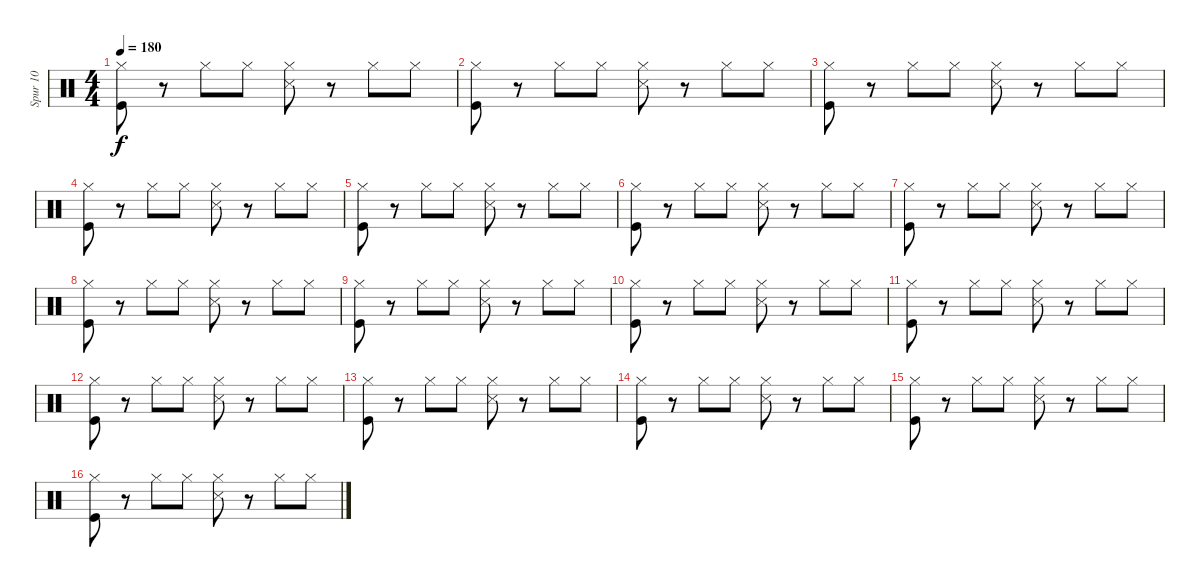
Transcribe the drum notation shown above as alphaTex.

\track ("Spur 10" "Spur 10") {instrument percussion}
\staff {score}
\articulation defaults
\ts (4 4)
\tempo 180
\clef neutral
\ks c
("Hi-Hat (closed)" "Kick (hit)").8{dy f} r.8 "Hi-Hat (closed)".8 "Hi-Hat (closed)".8 ("Hi-Hat (closed)" "Snare (side stick) 3").8 r.8 "Hi-Hat (closed)".8 "Hi-Hat (closed)".8 |
("Hi-Hat (closed)" "Kick (hit)").8 r.8 "Hi-Hat (closed)".8 "Hi-Hat (closed)".8 ("Hi-Hat (closed)" "Snare (side stick) 3").8 r.8 "Hi-Hat (closed)".8 "Hi-Hat (closed)".8 |
("Hi-Hat (closed)" "Kick (hit)").8 r.8 "Hi-Hat (closed)".8 "Hi-Hat (closed)".8 ("Hi-Hat (closed)" "Snare (side stick) 3").8 r.8 "Hi-Hat (closed)".8 "Hi-Hat (closed)".8 |
("Hi-Hat (closed)" "Kick (hit)").8 r.8 "Hi-Hat (closed)".8 "Hi-Hat (closed)".8 ("Hi-Hat (closed)" "Snare (side stick) 3").8 r.8 "Hi-Hat (closed)".8 "Hi-Hat (closed)".8 |
("Hi-Hat (closed)" "Kick (hit)").8 r.8 "Hi-Hat (closed)".8 "Hi-Hat (closed)".8 ("Hi-Hat (closed)" "Snare (side stick) 3").8 r.8 "Hi-Hat (closed)".8 "Hi-Hat (closed)".8 |
("Hi-Hat (closed)" "Kick (hit)").8 r.8 "Hi-Hat (closed)".8 "Hi-Hat (closed)".8 ("Hi-Hat (closed)" "Snare (side stick) 3").8 r.8 "Hi-Hat (closed)".8 "Hi-Hat (closed)".8 |
("Hi-Hat (closed)" "Kick (hit)").8 r.8 "Hi-Hat (closed)".8 "Hi-Hat (closed)".8 ("Hi-Hat (closed)" "Snare (side stick) 3").8 r.8 "Hi-Hat (closed)".8 "Hi-Hat (closed)".8 |
("Hi-Hat (closed)" "Kick (hit)").8 r.8 "Hi-Hat (closed)".8 "Hi-Hat (closed)".8 ("Hi-Hat (closed)" "Snare (side stick) 3").8 r.8 "Hi-Hat (closed)".8 "Hi-Hat (closed)".8 |
("Hi-Hat (closed)" "Kick (hit)").8 r.8 "Hi-Hat (closed)".8 "Hi-Hat (closed)".8 ("Hi-Hat (closed)" "Snare (side stick) 3").8 r.8 "Hi-Hat (closed)".8 "Hi-Hat (closed)".8 |
("Hi-Hat (closed)" "Kick (hit)").8 r.8 "Hi-Hat (closed)".8 "Hi-Hat (closed)".8 ("Hi-Hat (closed)" "Snare (side stick) 3").8 r.8 "Hi-Hat (closed)".8 "Hi-Hat (closed)".8 |
("Hi-Hat (closed)" "Kick (hit)").8 r.8 "Hi-Hat (closed)".8 "Hi-Hat (closed)".8 ("Hi-Hat (closed)" "Snare (side stick) 3").8 r.8 "Hi-Hat (closed)".8 "Hi-Hat (closed)".8 |
("Hi-Hat (closed)" "Kick (hit)").8 r.8 "Hi-Hat (closed)".8 "Hi-Hat (closed)".8 ("Hi-Hat (closed)" "Snare (side stick) 3").8 r.8 "Hi-Hat (closed)".8 "Hi-Hat (closed)".8 |
("Hi-Hat (closed)" "Kick (hit)").8 r.8 "Hi-Hat (closed)".8 "Hi-Hat (closed)".8 ("Hi-Hat (closed)" "Snare (side stick) 3").8 r.8 "Hi-Hat (closed)".8 "Hi-Hat (closed)".8 |
("Hi-Hat (closed)" "Kick (hit)").8 r.8 "Hi-Hat (closed)".8 "Hi-Hat (closed)".8 ("Hi-Hat (closed)" "Snare (side stick) 3").8 r.8 "Hi-Hat (closed)".8 "Hi-Hat (closed)".8 |
("Hi-Hat (closed)" "Kick (hit)").8 r.8 "Hi-Hat (closed)".8 "Hi-Hat (closed)".8 ("Hi-Hat (closed)" "Snare (side stick) 3").8 r.8 "Hi-Hat (closed)".8 "Hi-Hat (closed)".8 |
("Hi-Hat (closed)" "Kick (hit)").8 r.8 "Hi-Hat (closed)".8 "Hi-Hat (closed)".8 ("Hi-Hat (closed)" "Snare (side stick) 3").8 r.8 "Hi-Hat (closed)".8 "Hi-Hat (closed)".8
